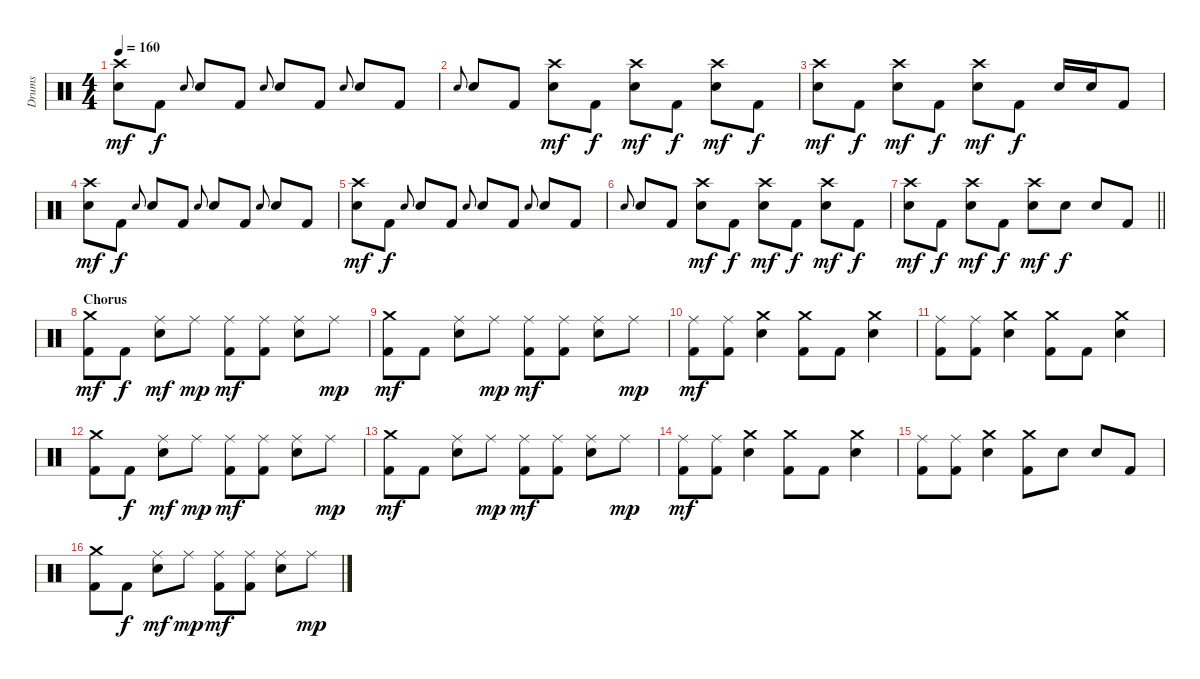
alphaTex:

\track ("Drums" "Drums") {instrument percussion}
\staff {score}
\articulation defaults
\ts (4 4)
\tempo 160
\clef neutral
\ks c
("Crash high (hit)" "Electric Snare (hit)").8{dy mf} "Kick (hit) 2".8{dy f} "Electric Snare (hit)".8{gr onbeat} "Electric Snare (hit)".8 "Kick (hit) 2".8 "Electric Snare (hit)".8{gr onbeat} "Electric Snare (hit)".8 "Kick (hit) 2".8 "Electric Snare (hit)".8{gr onbeat} "Electric Snare (hit)".8 "Kick (hit) 2".8 |
"Electric Snare (hit)".8{gr onbeat} "Electric Snare (hit)".8 "Kick (hit) 2".8 ("Crash high (hit)" "Electric Snare (hit)").8{dy mf} "Kick (hit) 2".8{dy f} ("Crash high (hit)" "Electric Snare (hit)").8{dy mf} "Kick (hit) 2".8{dy f} ("Crash high (hit)" "Electric Snare (hit)").8{dy mf} "Kick (hit) 2".8{dy f} |
("Crash high (hit)" "Electric Snare (hit)").8{dy mf} "Kick (hit) 2".8{dy f} ("Crash high (hit)" "Electric Snare (hit)").8{dy mf} "Kick (hit) 2".8{dy f} ("Crash high (hit)" "Electric Snare (hit)").8{dy mf} "Kick (hit) 2".8{dy f} "Electric Snare (hit)".16 "Electric Snare (hit)".16 "Kick (hit) 2".8 |
("Crash high (hit)" "Electric Snare (hit)").8{dy mf} "Kick (hit) 2".8{dy f} "Electric Snare (hit)".8{gr onbeat} "Electric Snare (hit)".8 "Kick (hit) 2".8 "Electric Snare (hit)".8{gr onbeat} "Electric Snare (hit)".8 "Kick (hit) 2".8 "Electric Snare (hit)".8{gr onbeat} "Electric Snare (hit)".8 "Kick (hit) 2".8 |
("Crash high (hit)" "Electric Snare (hit)").8{dy mf} "Kick (hit) 2".8{dy f} "Electric Snare (hit)".8{gr onbeat} "Electric Snare (hit)".8 "Kick (hit) 2".8 "Electric Snare (hit)".8{gr onbeat} "Electric Snare (hit)".8 "Kick (hit) 2".8 "Electric Snare (hit)".8{gr onbeat} "Electric Snare (hit)".8 "Kick (hit) 2".8 |
"Electric Snare (hit)".8{gr onbeat} "Electric Snare (hit)".8 "Kick (hit) 2".8 ("Crash high (hit)" "Electric Snare (hit)").8{dy mf} "Kick (hit) 2".8{dy f} ("Crash high (hit)" "Electric Snare (hit)").8{dy mf} "Kick (hit) 2".8{dy f} ("Crash high (hit)" "Electric Snare (hit)").8{dy mf} "Kick (hit) 2".8{dy f} |
\barLineRight lightlight
("Crash high (hit)" "Electric Snare (hit)").8{dy mf} "Kick (hit) 2".8{dy f} ("Crash high (hit)" "Electric Snare (hit)").8{dy mf} "Kick (hit) 2".8{dy f} ("Crash high (hit)" "Electric Snare (hit)").8{dy mf} "Electric Snare (hit)".8{dy f} "Electric Snare (hit)".8 "Kick (hit) 2".8 |
\section ("" "Chorus")
("Crash medium (hit)" "Kick (hit) 2").8{dy mf} "Kick (hit) 2".8{dy f} ("Ride (middle)" "Electric Snare (hit)").8{dy mf} "Ride (middle)".8{dy mp} ("Ride (middle)" "Kick (hit) 2").8{dy mf} ("Ride (middle)" "Kick (hit) 2").8 ("Ride (middle)" "Electric Snare (hit)").8 "Ride (middle)".8{dy mp} |
("Crash medium (hit)" "Kick (hit) 2").8{dy mf} "Kick (hit) 2".8 ("Ride (middle)" "Electric Snare (hit)").8 "Ride (middle)".8{dy mp} ("Ride (middle)" "Kick (hit) 2").8{dy mf} ("Ride (middle)" "Kick (hit) 2").8 ("Ride (middle)" "Electric Snare (hit)").8 "Ride (middle)".8{dy mp} |
("Ride (middle)" "Kick (hit) 2").8{dy mf} ("Ride (middle)" "Kick (hit) 2").8 ("Crash medium (hit)" "Electric Snare (hit)").4 ("Crash medium (hit)" "Kick (hit) 2").8 "Kick (hit) 2".8 ("Crash medium (hit)" "Electric Snare (hit)").4 |
("Ride (middle)" "Kick (hit) 2").8 ("Ride (middle)" "Kick (hit) 2").8 ("Crash medium (hit)" "Electric Snare (hit)").4 ("Crash medium (hit)" "Kick (hit) 2").8 "Kick (hit) 2".8 ("Crash medium (hit)" "Electric Snare (hit)").4 |
("Crash medium (hit)" "Kick (hit) 2").8 "Kick (hit) 2".8{dy f} ("Ride (middle)" "Electric Snare (hit)").8{dy mf} "Ride (middle)".8{dy mp} ("Ride (middle)" "Kick (hit) 2").8{dy mf} ("Ride (middle)" "Kick (hit) 2").8 ("Ride (middle)" "Electric Snare (hit)").8 "Ride (middle)".8{dy mp} |
("Crash medium (hit)" "Kick (hit) 2").8{dy mf} "Kick (hit) 2".8 ("Ride (middle)" "Electric Snare (hit)").8 "Ride (middle)".8{dy mp} ("Ride (middle)" "Kick (hit) 2").8{dy mf} ("Ride (middle)" "Kick (hit) 2").8 ("Ride (middle)" "Electric Snare (hit)").8 "Ride (middle)".8{dy mp} |
("Ride (middle)" "Kick (hit) 2").8{dy mf} ("Ride (middle)" "Kick (hit) 2").8 ("Crash medium (hit)" "Electric Snare (hit)").4 ("Crash medium (hit)" "Kick (hit) 2").8 "Kick (hit) 2".8 ("Crash medium (hit)" "Electric Snare (hit)").4 |
("Ride (middle)" "Kick (hit) 2").8 ("Ride (middle)" "Kick (hit) 2").8 ("Crash medium (hit)" "Electric Snare (hit)").4 ("Crash medium (hit)" "Kick (hit) 2").8 "Electric Snare (hit)".8 "Electric Snare (hit)".8 "Kick (hit) 2".8 |
("Crash medium (hit)" "Kick (hit) 2").8 "Kick (hit) 2".8{dy f} ("Ride (middle)" "Electric Snare (hit)").8{dy mf} "Ride (middle)".8{dy mp} ("Ride (middle)" "Kick (hit) 2").8{dy mf} ("Ride (middle)" "Kick (hit) 2").8 ("Ride (middle)" "Electric Snare (hit)").8 "Ride (middle)".8{dy mp}
